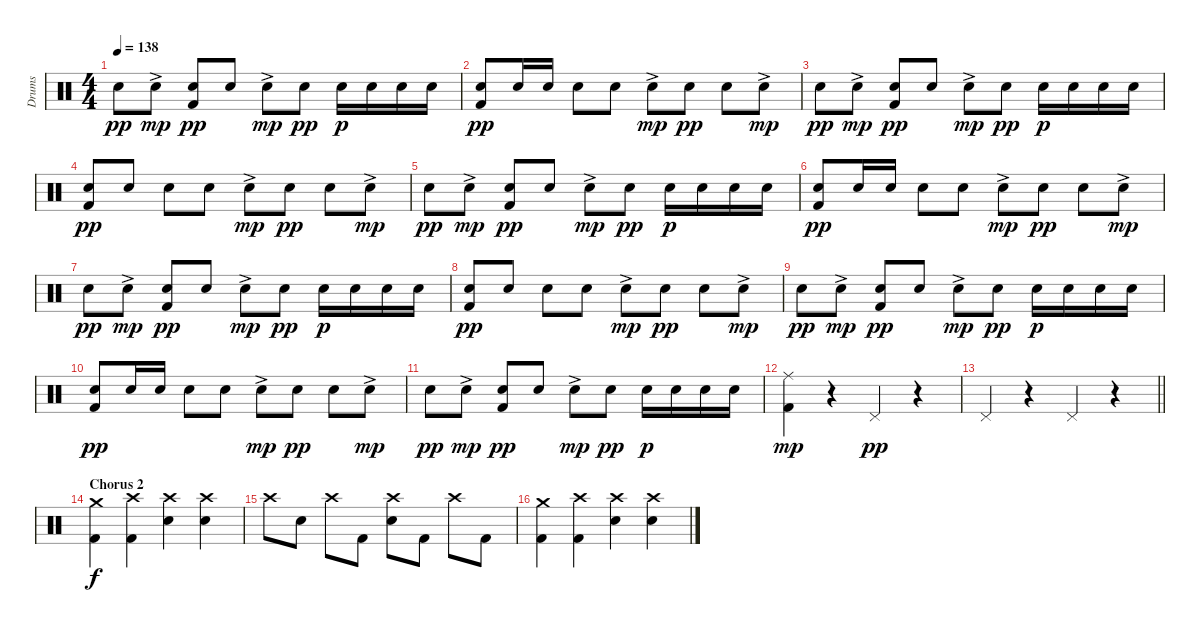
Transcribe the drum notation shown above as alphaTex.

\track ("Drums" "Drums") {instrument percussion}
\staff {score}
\articulation defaults
\ts (4 4)
\tempo 138
\clef neutral
\ks c "Electric Snare (hit)".8{dy pp} "Electric Snare (hit)"{ac}.8{dy mp}
("Electric Snare (hit)" "Kick (hit) 2").8{dy pp} "Electric Snare (hit)".8 "Electric Snare (hit)"{ac}.8{dy mp} "Electric Snare (hit)".8{dy pp} "Electric Snare (hit)".16{dy p} "Electric Snare (hit)".16 "Electric Snare (hit)".16 "Electric Snare (hit)".16 |
("Electric Snare (hit)" "Kick (hit) 2").8{dy pp} "Electric Snare (hit)".16 "Electric Snare (hit)".16 "Electric Snare (hit)".8 "Electric Snare (hit)".8 "Electric Snare (hit)"{ac}.8{dy mp} "Electric Snare (hit)".8{dy pp} "Electric Snare (hit)".8 "Electric Snare (hit)"{ac}.8{dy mp} |
"Electric Snare (hit)".8{dy pp} "Electric Snare (hit)"{ac}.8{dy mp} ("Electric Snare (hit)" "Kick (hit) 2").8{dy pp} "Electric Snare (hit)".8 "Electric Snare (hit)"{ac}.8{dy mp} "Electric Snare (hit)".8{dy pp} "Electric Snare (hit)".16{dy p} "Electric Snare (hit)".16 "Electric Snare (hit)".16 "Electric Snare (hit)".16 |
("Electric Snare (hit)" "Kick (hit) 2").8{dy pp} "Electric Snare (hit)".8 "Electric Snare (hit)".8 "Electric Snare (hit)".8 "Electric Snare (hit)"{ac}.8{dy mp} "Electric Snare (hit)".8{dy pp} "Electric Snare (hit)".8 "Electric Snare (hit)"{ac}.8{dy mp} |
"Electric Snare (hit)".8{dy pp} "Electric Snare (hit)"{ac}.8{dy mp} ("Electric Snare (hit)" "Kick (hit) 2").8{dy pp} "Electric Snare (hit)".8 "Electric Snare (hit)"{ac}.8{dy mp} "Electric Snare (hit)".8{dy pp} "Electric Snare (hit)".16{dy p} "Electric Snare (hit)".16 "Electric Snare (hit)".16 "Electric Snare (hit)".16 |
("Electric Snare (hit)" "Kick (hit) 2").8{dy pp} "Electric Snare (hit)".16 "Electric Snare (hit)".16 "Electric Snare (hit)".8 "Electric Snare (hit)".8 "Electric Snare (hit)"{ac}.8{dy mp} "Electric Snare (hit)".8{dy pp} "Electric Snare (hit)".8 "Electric Snare (hit)"{ac}.8{dy mp} |
"Electric Snare (hit)".8{dy pp} "Electric Snare (hit)"{ac}.8{dy mp} ("Electric Snare (hit)" "Kick (hit) 2").8{dy pp} "Electric Snare (hit)".8 "Electric Snare (hit)"{ac}.8{dy mp} "Electric Snare (hit)".8{dy pp} "Electric Snare (hit)".16{dy p} "Electric Snare (hit)".16 "Electric Snare (hit)".16 "Electric Snare (hit)".16 |
("Electric Snare (hit)" "Kick (hit) 2").8{dy pp} "Electric Snare (hit)".8 "Electric Snare (hit)".8 "Electric Snare (hit)".8 "Electric Snare (hit)"{ac}.8{dy mp} "Electric Snare (hit)".8{dy pp} "Electric Snare (hit)".8 "Electric Snare (hit)"{ac}.8{dy mp} |
"Electric Snare (hit)".8{dy pp} "Electric Snare (hit)"{ac}.8{dy mp} ("Electric Snare (hit)" "Kick (hit) 2").8{dy pp} "Electric Snare (hit)".8 "Electric Snare (hit)"{ac}.8{dy mp} "Electric Snare (hit)".8{dy pp} "Electric Snare (hit)".16{dy p} "Electric Snare (hit)".16 "Electric Snare (hit)".16 "Electric Snare (hit)".16 |
("Electric Snare (hit)" "Kick (hit) 2").8{dy pp} "Electric Snare (hit)".16 "Electric Snare (hit)".16 "Electric Snare (hit)".8 "Electric Snare (hit)".8 "Electric Snare (hit)"{ac}.8{dy mp} "Electric Snare (hit)".8{dy pp} "Electric Snare (hit)".8 "Electric Snare (hit)"{ac}.8{dy mp} |
"Electric Snare (hit)".8{dy pp} "Electric Snare (hit)"{ac}.8{dy mp} ("Electric Snare (hit)" "Kick (hit) 2").8{dy pp} "Electric Snare (hit)".8 "Electric Snare (hit)"{ac}.8{dy mp} "Electric Snare (hit)".8{dy pp} "Electric Snare (hit)".16{dy p} "Electric Snare (hit)".16 "Electric Snare (hit)".16 "Electric Snare (hit)".16 |
("Ride (middle)" "Kick (hit) 2").4{dy mp} r.4 "Pedal Hi-Hat (hit)".4{dy pp} r.4 |
\barLineRight lightlight "Pedal Hi-Hat (hit)".4
r.4 "Pedal Hi-Hat (hit)".4 r.4 |
\section ("" "Chorus 2")
("Crash medium (hit)" "Kick (hit) 2").4{dy f} ("Crash high (hit)" "Kick (hit) 2").4 ("Crash high (hit)" "Electric Snare (hit)").4 ("Crash high (hit)" "Electric Snare (hit)").4 |
"Crash high (hit)".8 "Electric Snare (hit)".8 "Crash high (hit)".8 "Kick (hit) 2".8 ("Crash high (hit)" "Electric Snare (hit)").8 "Kick (hit) 2".8 "Crash high (hit)".8 "Kick (hit) 2".8 |
("Crash medium (hit)" "Kick (hit) 2").4 ("Crash high (hit)" "Kick (hit) 2").4 ("Crash high (hit)" "Electric Snare (hit)").4 ("Crash high (hit)" "Electric Snare (hit)").4
